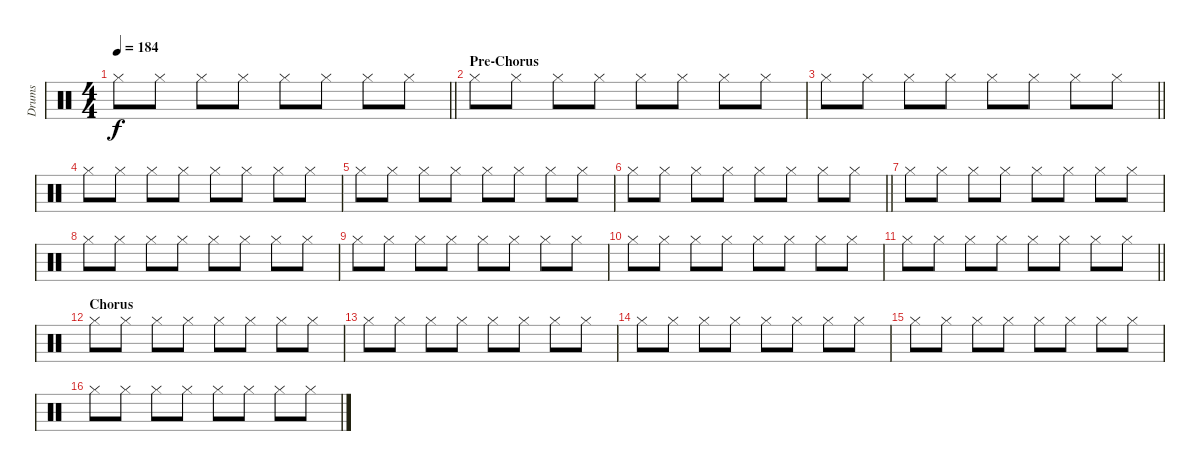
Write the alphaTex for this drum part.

\track ("Drums" "Drums") {instrument percussion}
\staff {score}
\articulation defaults
\ts (4 4)
\tempo 184
\clef neutral
\barLineRight lightlight
\ks c "Hi-Hat (closed)".8{dy f} "Hi-Hat (closed)".8 "Hi-Hat (closed)".8 "Hi-Hat (closed)".8 "Hi-Hat (closed)".8 "Hi-Hat (closed)".8 "Hi-Hat (closed)".8 "Hi-Hat (closed)".8
|
\section ("" "Pre-Chorus")
"Hi-Hat (closed)".8 "Hi-Hat (closed)".8 "Hi-Hat (closed)".8 "Hi-Hat (closed)".8 "Hi-Hat (closed)".8 "Hi-Hat (closed)".8 "Hi-Hat (closed)".8 "Hi-Hat (closed)".8 |
\barLineRight lightlight "Hi-Hat (closed)".8 "Hi-Hat (closed)".8 "Hi-Hat (closed)".8 "Hi-Hat (closed)".8 "Hi-Hat (closed)".8 "Hi-Hat (closed)".8 "Hi-Hat (closed)".8 "Hi-Hat (closed)".8
|
"Hi-Hat (closed)".8 "Hi-Hat (closed)".8 "Hi-Hat (closed)".8 "Hi-Hat (closed)".8 "Hi-Hat (closed)".8 "Hi-Hat (closed)".8 "Hi-Hat (closed)".8 "Hi-Hat (closed)".8 |
"Hi-Hat (closed)".8 "Hi-Hat (closed)".8 "Hi-Hat (closed)".8 "Hi-Hat (closed)".8 "Hi-Hat (closed)".8 "Hi-Hat (closed)".8 "Hi-Hat (closed)".8 "Hi-Hat (closed)".8 |
\barLineRight lightlight "Hi-Hat (closed)".8 "Hi-Hat (closed)".8 "Hi-Hat (closed)".8 "Hi-Hat (closed)".8 "Hi-Hat (closed)".8 "Hi-Hat (closed)".8 "Hi-Hat (closed)".8 "Hi-Hat (closed)".8
|
"Hi-Hat (closed)".8 "Hi-Hat (closed)".8 "Hi-Hat (closed)".8 "Hi-Hat (closed)".8 "Hi-Hat (closed)".8 "Hi-Hat (closed)".8 "Hi-Hat (closed)".8 "Hi-Hat (closed)".8 |
"Hi-Hat (closed)".8 "Hi-Hat (closed)".8 "Hi-Hat (closed)".8 "Hi-Hat (closed)".8 "Hi-Hat (closed)".8 "Hi-Hat (closed)".8 "Hi-Hat (closed)".8 "Hi-Hat (closed)".8 |
"Hi-Hat (closed)".8 "Hi-Hat (closed)".8 "Hi-Hat (closed)".8 "Hi-Hat (closed)".8 "Hi-Hat (closed)".8 "Hi-Hat (closed)".8 "Hi-Hat (closed)".8 "Hi-Hat (closed)".8 |
"Hi-Hat (closed)".8 "Hi-Hat (closed)".8 "Hi-Hat (closed)".8 "Hi-Hat (closed)".8 "Hi-Hat (closed)".8 "Hi-Hat (closed)".8 "Hi-Hat (closed)".8 "Hi-Hat (closed)".8 |
\barLineRight lightlight "Hi-Hat (closed)".8 "Hi-Hat (closed)".8 "Hi-Hat (closed)".8 "Hi-Hat (closed)".8 "Hi-Hat (closed)".8 "Hi-Hat (closed)".8 "Hi-Hat (closed)".8 "Hi-Hat (closed)".8
|
\section ("" "Chorus")
"Hi-Hat (closed)".8 "Hi-Hat (closed)".8 "Hi-Hat (closed)".8 "Hi-Hat (closed)".8 "Hi-Hat (closed)".8 "Hi-Hat (closed)".8 "Hi-Hat (closed)".8 "Hi-Hat (closed)".8 |
"Hi-Hat (closed)".8 "Hi-Hat (closed)".8 "Hi-Hat (closed)".8 "Hi-Hat (closed)".8 "Hi-Hat (closed)".8 "Hi-Hat (closed)".8 "Hi-Hat (closed)".8 "Hi-Hat (closed)".8 |
"Hi-Hat (closed)".8 "Hi-Hat (closed)".8 "Hi-Hat (closed)".8 "Hi-Hat (closed)".8 "Hi-Hat (closed)".8 "Hi-Hat (closed)".8 "Hi-Hat (closed)".8 "Hi-Hat (closed)".8 |
"Hi-Hat (closed)".8 "Hi-Hat (closed)".8 "Hi-Hat (closed)".8 "Hi-Hat (closed)".8 "Hi-Hat (closed)".8 "Hi-Hat (closed)".8 "Hi-Hat (closed)".8 "Hi-Hat (closed)".8 |
"Hi-Hat (closed)".8 "Hi-Hat (closed)".8 "Hi-Hat (closed)".8 "Hi-Hat (closed)".8 "Hi-Hat (closed)".8 "Hi-Hat (closed)".8 "Hi-Hat (closed)".8 "Hi-Hat (closed)".8
